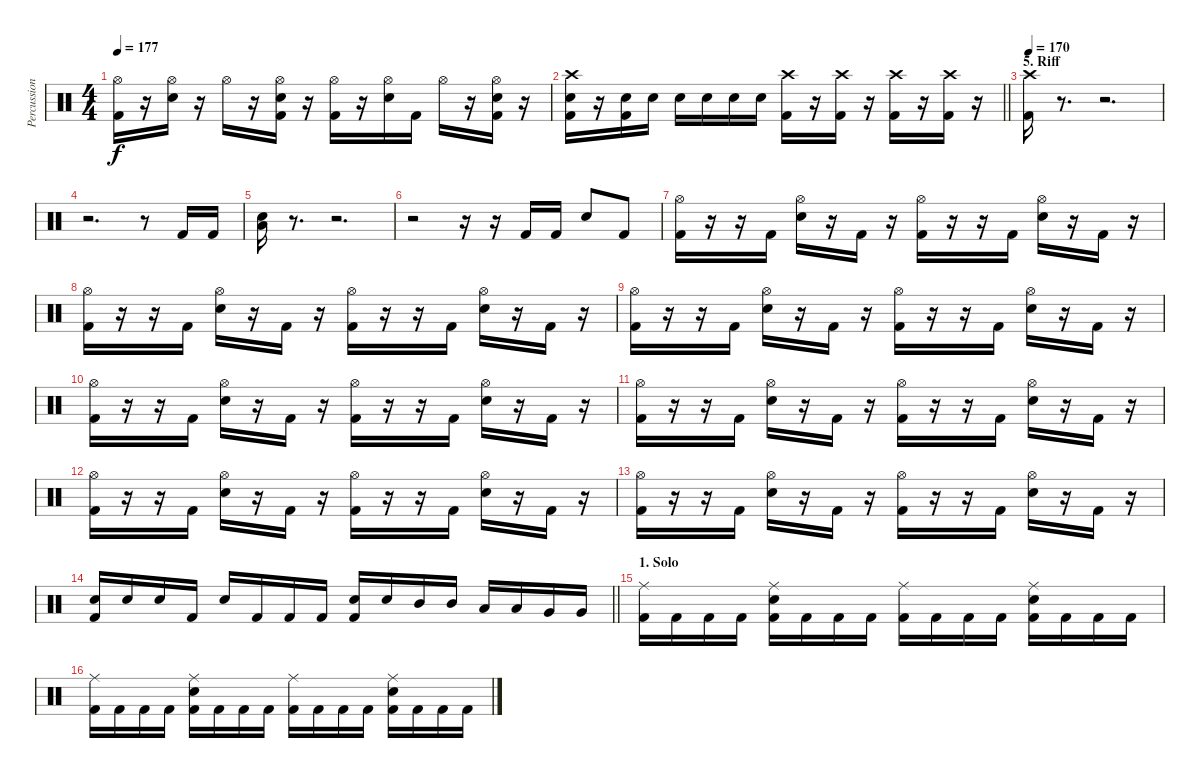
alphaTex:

\track ("Percussion" "Percussion") {instrument percussion}
\staff {score}
\articulation defaults
\ts (4 4)
\tempo 177
\clef neutral
\ks c
("Hi-Hat (open)" "Kick (hit) 2").16{dy f} r.16 ("Hi-Hat (open)" "Snare (hit) 2").16 r.16 "Hi-Hat (open)".16 r.16 ("Hi-Hat (open)" "Snare (hit) 2" "Kick (hit) 2").16 r.16 ("Hi-Hat (open)" "Kick (hit) 2").16 r.16 ("Hi-Hat (open)" "Snare (hit) 2").16 "Kick (hit) 2".16 "Hi-Hat (open)".16 r.16 ("Hi-Hat (open)" "Snare (hit) 2" "Kick (hit) 2").16 r.16 |
\barLineRight lightlight
("Crash high (hit)" "Snare (hit) 2" "Kick (hit) 2").16 r.16 ("Snare (hit) 2" "Kick (hit) 2").16 "Snare (hit) 2".16 "Snare (hit) 2".16 "Snare (hit) 2".16 "Snare (hit) 2".16 "Snare (hit) 2".16 ("Crash high (hit)" "Kick (hit) 2").16 r.16 ("Crash high (hit)" "Kick (hit) 2").16 r.16 ("Crash high (hit)" "Kick (hit) 2").16 r.16 ("Crash high (hit)" "Kick (hit) 2").16 r.16 |
\section ("" "5. Riff")
\tempo 170
("Crash high (hit)" "Kick (hit) 2").16 r.8{d} r.2{d} |
r.2{d} r.8 "Kick (hit) 2".16 "Kick (hit) 2".16 |
("Snare (hit) 2" "Low Floor Tom (hit)").16 r.8{d} r.2{d} |
r.2 r.16 r.16 "Kick (hit) 2".16 "Kick (hit) 2".16 "Snare (hit) 2".8 "Kick (hit) 2".8 |
("Hi-Hat (open)" "Kick (hit) 2").16 r.16 r.16 "Kick (hit) 2".16 ("Hi-Hat (open)" "Snare (hit) 2").16 r.16 "Kick (hit) 2".16 r.16 ("Hi-Hat (open)" "Kick (hit) 2").16 r.16 r.16 "Kick (hit) 2".16 ("Hi-Hat (open)" "Snare (hit) 2").16 r.16 "Kick (hit) 2".16 r.16 |
("Hi-Hat (open)" "Kick (hit) 2").16 r.16 r.16 "Kick (hit) 2".16 ("Hi-Hat (open)" "Snare (hit) 2").16 r.16 "Kick (hit) 2".16 r.16 ("Hi-Hat (open)" "Kick (hit) 2").16 r.16 r.16 "Kick (hit) 2".16 ("Hi-Hat (open)" "Snare (hit) 2").16 r.16 "Kick (hit) 2".16 r.16 |
("Hi-Hat (open)" "Kick (hit) 2").16 r.16 r.16 "Kick (hit) 2".16 ("Hi-Hat (open)" "Snare (hit) 2").16 r.16 "Kick (hit) 2".16 r.16 ("Hi-Hat (open)" "Kick (hit) 2").16 r.16 r.16 "Kick (hit) 2".16 ("Hi-Hat (open)" "Snare (hit) 2").16 r.16 "Kick (hit) 2".16 r.16 |
("Hi-Hat (open)" "Kick (hit) 2").16 r.16 r.16 "Kick (hit) 2".16 ("Hi-Hat (open)" "Snare (hit) 2").16 r.16 "Kick (hit) 2".16 r.16 ("Hi-Hat (open)" "Kick (hit) 2").16 r.16 r.16 "Kick (hit) 2".16 ("Hi-Hat (open)" "Snare (hit) 2").16 r.16 "Kick (hit) 2".16 r.16 |
("Hi-Hat (open)" "Kick (hit) 2").16 r.16 r.16 "Kick (hit) 2".16 ("Hi-Hat (open)" "Snare (hit) 2").16 r.16 "Kick (hit) 2".16 r.16 ("Hi-Hat (open)" "Kick (hit) 2").16 r.16 r.16 "Kick (hit) 2".16 ("Hi-Hat (open)" "Snare (hit) 2").16 r.16 "Kick (hit) 2".16 r.16 |
("Hi-Hat (open)" "Kick (hit) 2").16 r.16 r.16 "Kick (hit) 2".16 ("Hi-Hat (open)" "Snare (hit) 2").16 r.16 "Kick (hit) 2".16 r.16 ("Hi-Hat (open)" "Kick (hit) 2").16 r.16 r.16 "Kick (hit) 2".16 ("Hi-Hat (open)" "Snare (hit) 2").16 r.16 "Kick (hit) 2".16 r.16 |
("Hi-Hat (open)" "Kick (hit) 2").16 r.16 r.16 "Kick (hit) 2".16 ("Hi-Hat (open)" "Snare (hit) 2").16 r.16 "Kick (hit) 2".16 r.16 ("Hi-Hat (open)" "Kick (hit) 2").16 r.16 r.16 "Kick (hit) 2".16 ("Hi-Hat (open)" "Snare (hit) 2").16 r.16 "Kick (hit) 2".16 r.16 |
\barLineRight lightlight
("Snare (hit) 2" "Kick (hit) 2").16 "Snare (hit) 2".16 "Snare (hit) 2".16 "Kick (hit) 2".16 "Snare (hit) 2".16 "Kick (hit) 2".16 "Kick (hit) 2".16 "Kick (hit) 2".16 ("Snare (hit) 2" "Kick (hit) 2").16 "Snare (hit) 2".16 "Mid Tom (hit)".16 "Mid Tom (hit)".16 "Low Tom (hit)".16 "Low Tom (hit)".16 "Very Low Tom (hit)".16 "Very Low Tom (hit)".16 |
\section ("" "1. Solo")
("Ride (middle)" "Kick (hit) 2").16 "Kick (hit) 2".16 "Kick (hit) 2".16 "Kick (hit) 2".16 ("Ride (middle)" "Snare (hit) 2" "Kick (hit) 2").16 "Kick (hit) 2".16 "Kick (hit) 2".16 "Kick (hit) 2".16 ("Ride (middle)" "Kick (hit) 2").16 "Kick (hit) 2".16 "Kick (hit) 2".16 "Kick (hit) 2".16 ("Ride (middle)" "Snare (hit) 2" "Kick (hit) 2").16 "Kick (hit) 2".16 "Kick (hit) 2".16 "Kick (hit) 2".16 |
("Ride (middle)" "Kick (hit) 2").16 "Kick (hit) 2".16 "Kick (hit) 2".16 "Kick (hit) 2".16 ("Ride (middle)" "Snare (hit) 2" "Kick (hit) 2").16 "Kick (hit) 2".16 "Kick (hit) 2".16 "Kick (hit) 2".16 ("Ride (middle)" "Kick (hit) 2").16 "Kick (hit) 2".16 "Kick (hit) 2".16 "Kick (hit) 2".16 ("Ride (middle)" "Snare (hit) 2" "Kick (hit) 2").16 "Kick (hit) 2".16 "Kick (hit) 2".16 "Kick (hit) 2".16
